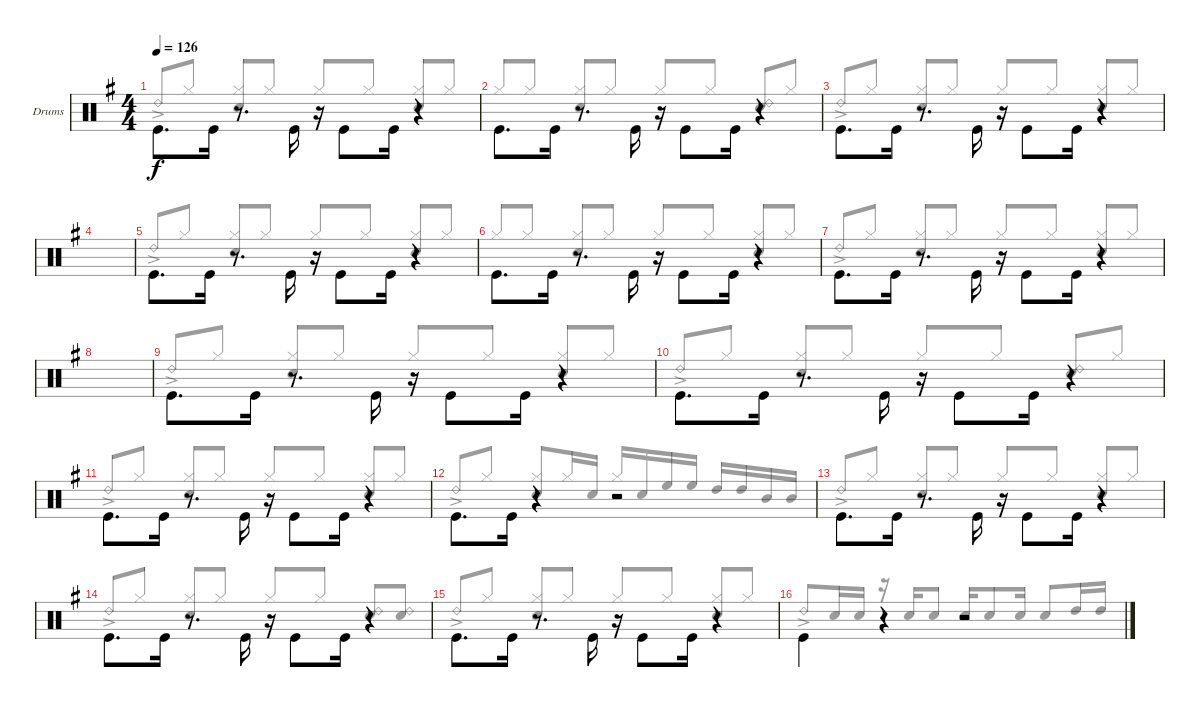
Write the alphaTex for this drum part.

\defaultSystemsLayout 4
\bracketExtendMode groupsimilarinstruments
\firstSystemTrackNameOrientation horizontal
\otherSystemsTrackNameOrientation horizontal
\track ("Drumkit" "Drums") {instrument percussion}
\staff {score}
\articulation defaults
\voice
\ts (4 4)
\tempo 126
\clef neutral
\scale
1.04288
\ks g "Kick (hit)".8{d dy f beam invert} "Kick (hit)".16
r.8{d beam invert} "Kick (hit)".16{beam invert} r.16{beam invert} "Kick (hit)".8{beam invert} "Kick (hit)".16 r.4{beam invert} |
\scale
0.957125 "Kick (hit)".8{d beam invert} "Kick (hit)".16 r.8{d beam invert} "Kick (hit)".16{beam invert} r.16{beam invert} "Kick (hit)".8{beam invert} "Kick (hit)".16 r.4{beam invert} |
\scale
1.04288 "Kick (hit)".8{d beam invert} "Kick (hit)".16 r.8{d beam invert} "Kick (hit)".16{beam invert} r.16{beam invert} "Kick (hit)".8{beam invert} "Kick (hit)".16 r.4{beam invert} |
\scale
0.957125 |
\scale
1.04288 "Kick (hit)".8{d beam invert} "Kick (hit)".16 r.8{d beam invert} "Kick (hit)".16{beam invert} r.16{beam invert} "Kick (hit)".8{beam invert} "Kick (hit)".16 r.4{beam invert} |
\scale
0.957125 "Kick (hit)".8{d beam invert} "Kick (hit)".16 r.8{d beam invert} "Kick (hit)".16{beam invert} r.16{beam invert} "Kick (hit)".8{beam invert} "Kick (hit)".16 r.4{beam invert} |
\scale
1.04288 "Kick (hit)".8{d beam invert} "Kick (hit)".16 r.8{d beam invert} "Kick (hit)".16{beam invert} r.16{beam invert} "Kick (hit)".8{beam invert} "Kick (hit)".16 r.4{beam invert} |
\scale
0.957125 |
\scale
1.04288 "Kick (hit)".8{d beam invert} "Kick (hit)".16 r.8{d beam invert} "Kick (hit)".16{beam invert} r.16{beam invert} "Kick (hit)".8{beam invert} "Kick (hit)".16 r.4{beam invert} |
\scale
0.957125 "Kick (hit)".8{d beam invert} "Kick (hit)".16 r.8{d beam invert} "Kick (hit)".16{beam invert} r.16{beam invert} "Kick (hit)".8{beam invert} "Kick (hit)".16 r.4{beam invert} |
\scale
1.04288 "Kick (hit)".8{d beam invert} "Kick (hit)".16 r.8{d beam invert} "Kick (hit)".16{beam invert} r.16{beam invert} "Kick (hit)".8{beam invert} "Kick (hit)".16 r.4{beam invert} |
\scale
0.957125 "Kick (hit)".8{d beam invert} "Kick (hit)".16 r.4{beam invert} r.2 |
\scale
1.04288 "Kick (hit)".8{d beam invert} "Kick (hit)".16 r.8{d beam invert} "Kick (hit)".16{beam invert} r.16{beam invert} "Kick (hit)".8{beam invert} "Kick (hit)".16 r.4{beam invert} |
\scale
0.957125 "Kick (hit)".8{d beam invert} "Kick (hit)".16 r.8{d beam invert} "Kick (hit)".16{beam invert} r.16{beam invert} "Kick (hit)".8{beam invert} "Kick (hit)".16 r.4{beam invert} |
\scale
1.04288 "Kick (hit)".8{d beam invert} "Kick (hit)".16 r.8{d beam invert} "Kick (hit)".16{beam invert} r.16{beam invert} "Kick (hit)".8{beam invert} "Kick (hit)".16 r.4{beam invert} |
\scale
0.957125 "Kick (hit)".4{beam invert} r.4 r.2
\voice
\clef neutral
\ottava regular
\simile none
\scale
1.04288
\ks g "Ride (bell) 2"{ac}.8{dy f beam invert} "Hi-Hat (closed)".8
("Hi-Hat (closed)" "Snare (hit) 2").8{beam invert} "Hi-Hat (closed)".8 "Hi-Hat (closed)".8{beam invert} "Hi-Hat (closed)".8 ("Hi-Hat (closed)" "Snare (hit) 2").8{beam invert} "Hi-Hat (closed)".8 |
\scale
0.957125 "Hi-Hat (closed)".8{beam invert} "Hi-Hat (closed)".8 ("Hi-Hat (closed)" "Snare (hit) 2").8{beam invert} "Hi-Hat (closed)".8 "Hi-Hat (closed)".8{beam invert} "Hi-Hat (closed)".8 ("Snare (hit) 2" "Ride (bell) 2").8{beam invert} "Hi-Hat (closed)".8 |
\scale
1.04288 "Ride (bell) 2"{ac}.8{beam invert} "Hi-Hat (closed)".8 ("Hi-Hat (closed)" "Snare (hit) 2").8{beam invert} "Hi-Hat (closed)".8 "Hi-Hat (closed)".8{beam invert} "Hi-Hat (closed)".8 ("Hi-Hat (closed)" "Snare (hit) 2").8{beam invert} "Hi-Hat (closed)".8 |
\scale
0.957125 |
\scale
1.04288 "Ride (bell) 2"{ac}.8{beam invert} "Hi-Hat (closed)".8 ("Hi-Hat (closed)" "Snare (hit) 2").8{beam invert} "Hi-Hat (closed)".8 "Hi-Hat (closed)".8{beam invert} "Hi-Hat (closed)".8 ("Hi-Hat (closed)" "Snare (hit) 2").8{beam invert} "Hi-Hat (closed)".8 |
\scale
0.957125 "Hi-Hat (closed)".8{beam invert} "Hi-Hat (closed)".8 ("Hi-Hat (closed)" "Snare (hit) 2").8{beam invert} "Hi-Hat (closed)".8 "Hi-Hat (closed)".8{beam invert} "Hi-Hat (closed)".8 ("Hi-Hat (closed)" "Snare (hit) 2").8{beam invert} "Hi-Hat (closed)".8 |
\scale
1.04288 "Ride (bell) 2"{ac}.8{beam invert} "Hi-Hat (closed)".8 ("Hi-Hat (closed)" "Snare (hit) 2").8{beam invert} "Hi-Hat (closed)".8 "Hi-Hat (closed)".8{beam invert} "Hi-Hat (closed)".8 ("Hi-Hat (closed)" "Snare (hit) 2").8{beam invert} "Hi-Hat (closed)".8 |
\scale
0.957125 |
\scale
1.04288 "Ride (bell) 2"{ac}.8{beam invert} "Hi-Hat (closed)".8 ("Hi-Hat (closed)" "Snare (hit) 2").8{beam invert} "Hi-Hat (closed)".8 "Hi-Hat (closed)".8{beam invert} "Hi-Hat (closed)".8 ("Hi-Hat (closed)" "Snare (hit) 2").8{beam invert} "Hi-Hat (closed)".8 |
\scale
0.957125 "Ride (bell) 2"{ac}.8{beam invert} "Hi-Hat (closed)".8 ("Hi-Hat (closed)" "Snare (hit) 2").8{beam invert} "Hi-Hat (closed)".8 "Hi-Hat (closed)".8{beam invert} "Hi-Hat (closed)".8 ("Snare (hit) 2" "Ride (bell) 2").8{beam invert} "Hi-Hat (closed)".8 |
\scale
1.04288 "Ride (bell) 2"{ac}.8{beam invert} "Hi-Hat (closed)".8 ("Hi-Hat (closed)" "Snare (hit) 2").8{beam invert} "Hi-Hat (closed)".8 "Hi-Hat (closed)".8{beam invert} "Hi-Hat (closed)".8 ("Hi-Hat (closed)" "Snare (hit) 2").8{beam invert} "Hi-Hat (closed)".8 |
\scale
0.957125 "Ride (bell) 2"{ac}.8{beam invert} "Hi-Hat (closed)".8 ("Hi-Hat (closed)" "Snare (hit) 2").8{beam invert} "Hi-Hat (closed)".16 "Snare (hit) 2".16 "Hi-Hat (closed)".16 "Snare (hit) 2".16{beam invert} "High Floor Tom (hit)".16 "High Floor Tom (hit)".16 "High Tom (hit)".16{beam invert} "High Tom (hit)".16 "Mid Tom (hit)".16 "Mid Tom (hit)".16 |
\scale
1.04288 "Ride (bell) 2"{ac}.8{beam invert} "Hi-Hat (closed)".8 ("Hi-Hat (closed)" "Snare (hit) 2").8{beam invert} "Hi-Hat (closed)".8 "Hi-Hat (closed)".8{beam invert} "Hi-Hat (closed)".8 ("Hi-Hat (closed)" "Snare (hit) 2").8{beam invert} "Hi-Hat (closed)".8 |
\scale
0.957125 "Ride (bell) 2"{ac}.8{beam invert} "Hi-Hat (closed)".8 ("Hi-Hat (closed)" "Snare (hit) 2").8{beam invert} "Hi-Hat (closed)".8 "Hi-Hat (closed)".8{beam invert} "Hi-Hat (closed)".8 ("Snare (hit) 2" "Ride (bell) 2").8{beam invert} ("Snare (hit) 2" "Ride (bell) 2").8 |
\scale
1.04288 "Ride (bell) 2"{ac}.8{beam invert} "Hi-Hat (closed)".8 ("Hi-Hat (closed)" "Snare (hit) 2").8{beam invert} "Hi-Hat (closed)".8 "Hi-Hat (closed)".8{beam invert} "Hi-Hat (closed)".8 ("Hi-Hat (closed)" "Snare (hit) 2").8{beam invert} "Hi-Hat (closed)".8 |
\scale
0.957125 "Ride (bell) 2"{ac}.8{beam invert} "Snare (hit) 2".16 "Snare (hit) 2".16 r.16{beam invert} "Snare (hit) 2".16{beam invert} "Snare (hit) 2".8 "Snare (hit) 2".16{beam invert} "Snare (hit) 2".8 "Snare (hit) 2".16 "Snare (hit) 2".8{beam invert} "High Tom (hit)".16 "High Tom (hit)".16
